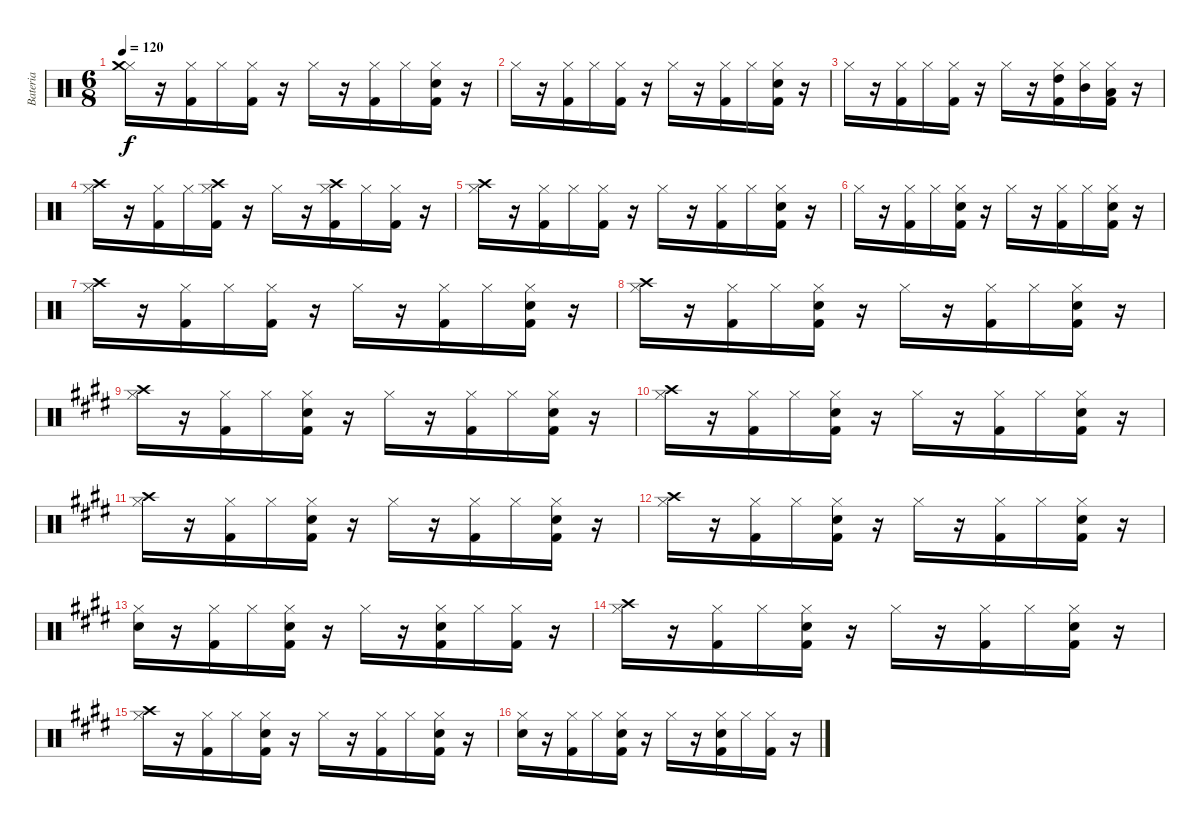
\track ("Bateria" "Bateria") {instrument percussion}
\staff {score}
\articulation defaults
\ts (6 8)
\tempo 120
\clef neutral
\ks c
("Hi-Hat (closed)" "Crash medium (hit)").16{dy f} r.16 ("Hi-Hat (closed)" "Kick (hit) 2").16 "Hi-Hat (closed)".16 ("Hi-Hat (closed)" "Kick (hit) 2").16 r.16 "Hi-Hat (closed)".16 r.16 ("Hi-Hat (closed)" "Kick (hit) 2").16 "Hi-Hat (closed)".16 ("Hi-Hat (closed)" "Kick (hit) 2" "Electric Snare (hit)").16 r.16 |
"Hi-Hat (closed)".16 r.16 ("Hi-Hat (closed)" "Kick (hit) 2").16 "Hi-Hat (closed)".16 ("Hi-Hat (closed)" "Kick (hit) 2").16 r.16 "Hi-Hat (closed)".16 r.16 ("Hi-Hat (closed)" "Kick (hit) 2").16 "Hi-Hat (closed)".16 ("Hi-Hat (closed)" "Kick (hit) 2" "Electric Snare (hit)").16 r.16 |
"Hi-Hat (closed)".16 r.16 ("Hi-Hat (closed)" "Kick (hit) 2").16 "Hi-Hat (closed)".16 ("Hi-Hat (closed)" "Kick (hit) 2").16 r.16 "Hi-Hat (closed)".16 r.16 ("Hi-Hat (closed)" "Kick (hit) 2" "High Tom (hit)").16 ("Hi-Hat (closed)" "Mid Tom (hit)").16 ("Hi-Hat (closed)" "Kick (hit) 2" "Low Tom (hit)").16 r.16 |
("Hi-Hat (closed)" "Crash high (hit)").16 r.16 ("Hi-Hat (closed)" "Kick (hit) 2").16 "Hi-Hat (closed)".16 ("Hi-Hat (closed)" "Kick (hit) 2" "Crash high (hit)").16 r.16 "Hi-Hat (closed)".16 r.16 ("Hi-Hat (closed)" "Kick (hit) 2" "Crash high (hit)").16 "Hi-Hat (closed)".16 ("Hi-Hat (closed)" "Kick (hit) 2").16 r.16 |
("Hi-Hat (closed)" "Crash high (hit)").16 r.16 ("Hi-Hat (closed)" "Kick (hit) 2").16 "Hi-Hat (closed)".16 ("Hi-Hat (closed)" "Kick (hit) 2").16 r.16 "Hi-Hat (closed)".16 r.16 ("Hi-Hat (closed)" "Kick (hit) 2").16 "Hi-Hat (closed)".16 ("Hi-Hat (closed)" "Kick (hit) 2" "Electric Snare (hit)").16 r.16 |
"Hi-Hat (closed)".16 r.16 ("Hi-Hat (closed)" "Kick (hit) 2").16 "Hi-Hat (closed)".16 ("Hi-Hat (closed)" "Kick (hit) 2" "Electric Snare (hit)").16 r.16 "Hi-Hat (closed)".16 r.16 ("Hi-Hat (closed)" "Kick (hit) 2").16 "Hi-Hat (closed)".16 ("Hi-Hat (closed)" "Kick (hit) 2" "Electric Snare (hit)").16 r.16 |
("Hi-Hat (closed)" "Crash high (hit)").16 r.16 ("Hi-Hat (closed)" "Kick (hit) 2").16 "Hi-Hat (closed)".16 ("Hi-Hat (closed)" "Kick (hit) 2").16 r.16 "Hi-Hat (closed)".16 r.16 ("Hi-Hat (closed)" "Kick (hit) 2").16 "Hi-Hat (closed)".16 ("Hi-Hat (closed)" "Kick (hit) 2" "Electric Snare (hit)").16 r.16 |
("Hi-Hat (closed)" "Crash high (hit)").16 r.16 ("Hi-Hat (closed)" "Kick (hit) 2").16 "Hi-Hat (closed)".16 ("Hi-Hat (closed)" "Kick (hit) 2" "Electric Snare (hit)").16 r.16 "Hi-Hat (closed)".16 r.16 ("Hi-Hat (closed)" "Kick (hit) 2").16 "Hi-Hat (closed)".16 ("Hi-Hat (closed)" "Kick (hit) 2" "Electric Snare (hit)").16 r.16 |
\ks e
("Hi-Hat (closed)" "Crash high (hit)").16 r.16 ("Hi-Hat (closed)" "Kick (hit) 2").16 "Hi-Hat (closed)".16 ("Hi-Hat (closed)" "Kick (hit) 2" "Electric Snare (hit)").16 r.16 "Hi-Hat (closed)".16 r.16 ("Hi-Hat (closed)" "Kick (hit) 2").16 "Hi-Hat (closed)".16 ("Hi-Hat (closed)" "Kick (hit) 2" "Electric Snare (hit)").16 r.16 |
("Hi-Hat (closed)" "Crash high (hit)").16 r.16 ("Hi-Hat (closed)" "Kick (hit) 2").16 "Hi-Hat (closed)".16 ("Hi-Hat (closed)" "Kick (hit) 2" "Electric Snare (hit)").16 r.16 "Hi-Hat (closed)".16 r.16 ("Hi-Hat (closed)" "Kick (hit) 2").16 "Hi-Hat (closed)".16 ("Hi-Hat (closed)" "Kick (hit) 2" "Electric Snare (hit)").16 r.16 |
("Hi-Hat (closed)" "Crash high (hit)").16 r.16 ("Hi-Hat (closed)" "Kick (hit) 2").16 "Hi-Hat (closed)".16 ("Hi-Hat (closed)" "Kick (hit) 2" "Electric Snare (hit)").16 r.16 "Hi-Hat (closed)".16 r.16 ("Hi-Hat (closed)" "Kick (hit) 2").16 "Hi-Hat (closed)".16 ("Hi-Hat (closed)" "Kick (hit) 2" "Electric Snare (hit)").16 r.16 |
("Hi-Hat (closed)" "Crash high (hit)").16 r.16 ("Hi-Hat (closed)" "Kick (hit) 2").16 "Hi-Hat (closed)".16 ("Hi-Hat (closed)" "Kick (hit) 2" "Electric Snare (hit)").16 r.16 "Hi-Hat (closed)".16 r.16 ("Hi-Hat (closed)" "Kick (hit) 2").16 "Hi-Hat (closed)".16 ("Hi-Hat (closed)" "Kick (hit) 2" "Electric Snare (hit)").16 r.16 |
("Hi-Hat (closed)" "Electric Snare (hit)").16 r.16 ("Hi-Hat (closed)" "Kick (hit) 2").16 "Hi-Hat (closed)".16 ("Hi-Hat (closed)" "Kick (hit) 2" "Electric Snare (hit)").16 r.16 "Hi-Hat (closed)".16 r.16 ("Hi-Hat (closed)" "Kick (hit) 2" "Electric Snare (hit)").16 "Hi-Hat (closed)".16 ("Hi-Hat (closed)" "Kick (hit) 2").16 r.16 |
("Hi-Hat (closed)" "Crash high (hit)").16 r.16 ("Hi-Hat (closed)" "Kick (hit) 2").16 "Hi-Hat (closed)".16 ("Hi-Hat (closed)" "Kick (hit) 2" "Electric Snare (hit)").16 r.16 "Hi-Hat (closed)".16 r.16 ("Hi-Hat (closed)" "Kick (hit) 2").16 "Hi-Hat (closed)".16 ("Hi-Hat (closed)" "Kick (hit) 2" "Electric Snare (hit)").16 r.16 |
("Hi-Hat (closed)" "Crash high (hit)").16 r.16 ("Hi-Hat (closed)" "Kick (hit) 2").16 "Hi-Hat (closed)".16 ("Hi-Hat (closed)" "Kick (hit) 2" "Electric Snare (hit)").16 r.16 "Hi-Hat (closed)".16 r.16 ("Hi-Hat (closed)" "Kick (hit) 2").16 "Hi-Hat (closed)".16 ("Hi-Hat (closed)" "Kick (hit) 2" "Electric Snare (hit)").16 r.16 |
("Hi-Hat (closed)" "Electric Snare (hit)").16 r.16 ("Hi-Hat (closed)" "Kick (hit) 2").16 "Hi-Hat (closed)".16 ("Hi-Hat (closed)" "Kick (hit) 2" "Electric Snare (hit)").16 r.16 "Hi-Hat (closed)".16 r.16 ("Hi-Hat (closed)" "Kick (hit) 2" "Electric Snare (hit)").16 "Hi-Hat (closed)".16 ("Hi-Hat (closed)" "Kick (hit) 2").16 r.16
